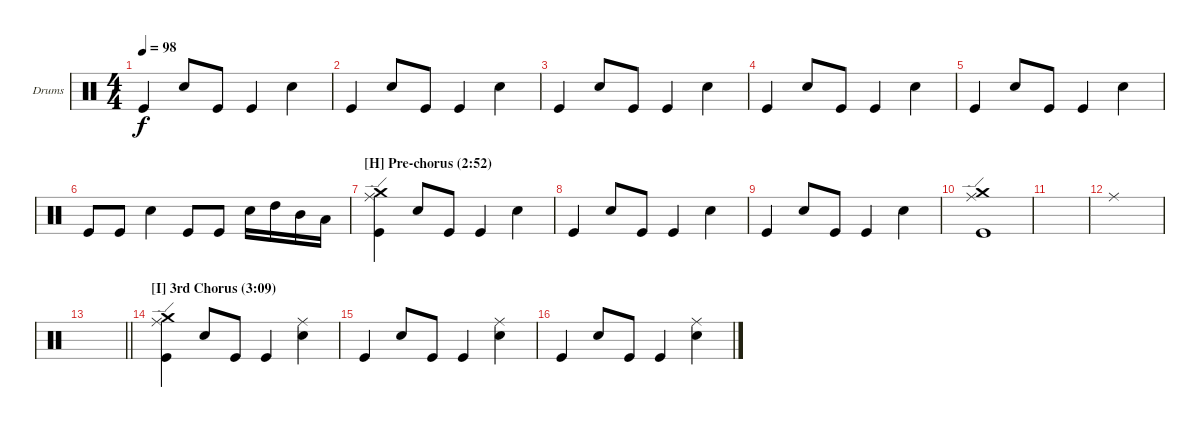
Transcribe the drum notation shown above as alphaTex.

\defaultSystemsLayout 4
\bracketExtendMode groupsimilarinstruments
\firstSystemTrackNameOrientation horizontal
\otherSystemsTrackNameOrientation horizontal
\track ("Drums" "Drums") {instrument percussion}
\staff {score}
\articulation defaults
\ts (4 4)
\tempo 98
\clef neutral
\scale
1.07945
\ks c "Kick (hit)".4{dy f} "Snare (hit) 2".8 "Kick (hit)".8 "Kick (hit)".4 "Snare (hit) 2".4
|
\scale
0.973518 "Kick (hit)".4 "Snare (hit) 2".8 "Kick (hit)".8 "Kick (hit)".4 "Snare (hit) 2".4 |
\scale
0.973518 "Kick (hit)".4 "Snare (hit) 2".8 "Kick (hit)".8 "Kick (hit)".4 "Snare (hit) 2".4 |
\scale
0.973518 "Kick (hit)".4 "Snare (hit) 2".8 "Kick (hit)".8 "Kick (hit)".4 "Snare (hit) 2".4 |
\scale
1.07945 "Kick (hit)".4 "Snare (hit) 2".8 "Kick (hit)".8 "Kick (hit)".4 "Snare (hit) 2".4 |
\scale
0.973518 "Kick (hit)".8 "Kick (hit)".8 "Snare (hit) 2".4 "Kick (hit)".8 "Kick (hit)".8 "Snare (hit) 2".16 "High Tom (hit)".16 "Mid Tom (hit)".16 "Low Tom (hit)".16 |
\section ("H" "Pre-chorus (2:52)")
\scale
0.973518 ("Kick (hit)" "Ride (edge)" "Crash medium (hit)").4 "Snare (hit) 2".8 "Kick (hit)".8 "Kick (hit)".4 "Snare (hit) 2".4 |
\scale
0.973518 "Kick (hit)".4 "Snare (hit) 2".8 "Kick (hit)".8 "Kick (hit)".4 "Snare (hit) 2".4 |
\scale
1.07945 "Kick (hit)".4 "Snare (hit) 2".8 "Kick (hit)".8 "Kick (hit)".4 "Snare (hit) 2".4 |
\scale
0.973518 ("Kick (hit)" "Ride (edge)" "Crash medium (hit)").1 |
\scale
0.973518 |
\scale
0.973518 "Ride (middle)".1 |
\scale
1.07945
\barLineRight lightlight
|
\section ("I" "3rd Chorus (3:09)")
\scale
0.973518 ("Kick (hit)" "Ride (edge)" "Crash medium (hit)").4 "Snare (hit) 2".8 "Kick (hit)".8 "Kick (hit)".4 ("Snare (hit) 2" "Ride (middle)").4 |
\scale
0.973518 "Kick (hit)".4 "Snare (hit) 2".8 "Kick (hit)".8 "Kick (hit)".4 ("Snare (hit) 2" "Ride (middle)").4 |
\scale
0.973518 "Kick (hit)".4 "Snare (hit) 2".8 "Kick (hit)".8 "Kick (hit)".4 ("Snare (hit) 2" "Ride (middle)").4
